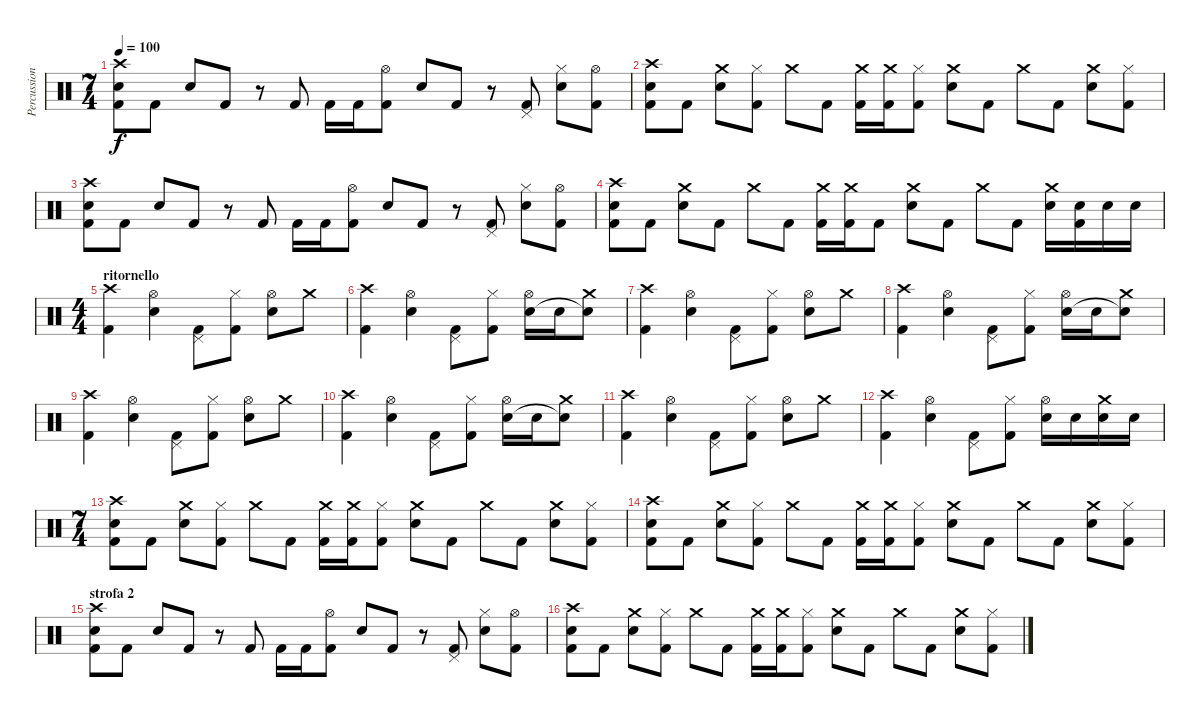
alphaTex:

\track ("Percussioni" "Percussion") {instrument percussion}
\staff {score}
\articulation defaults
\ts (7 4)
\tempo 100
\clef neutral
\ks c
("Crash high (hit)" "Snare (hit) 2" "Kick (hit) 2").8{dy f} "Kick (hit) 2".8 "Snare (hit) 2".8 "Kick (hit) 2".8 r.8 "Kick (hit) 2".8 "Kick (hit) 2".16 "Kick (hit) 2".16 ("Hi-Hat (open)" "Kick (hit) 2").8 "Snare (hit) 2".8 "Kick (hit) 2".8 r.8 ("Pedal Hi-Hat (hit)" "Kick (hit) 2").8 ("Hi-Hat (closed)" "Snare (hit) 2").8 ("Hi-Hat (open)" "Kick (hit) 2").8 |
("Crash high (hit)" "Snare (hit) 2" "Kick (hit) 2").8 "Kick (hit) 2".8 ("Crash medium (hit)" "Snare (hit) 2").8 ("Hi-Hat (closed)" "Kick (hit) 2").8 "Crash medium (hit)".8 "Kick (hit) 2".8 ("Crash medium (hit)" "Kick (hit) 2").16 ("Crash medium (hit)" "Kick (hit) 2").16 ("Hi-Hat (closed)" "Kick (hit) 2").8 ("Crash medium (hit)" "Snare (hit) 2").8 "Kick (hit) 2".8 "Crash medium (hit)".8 "Kick (hit) 2".8 ("Crash medium (hit)" "Snare (hit) 2").8 ("Hi-Hat (closed)" "Kick (hit) 2").8 |
("Crash high (hit)" "Snare (hit) 2" "Kick (hit) 2").8 "Kick (hit) 2".8 "Snare (hit) 2".8 "Kick (hit) 2".8 r.8 "Kick (hit) 2".8 "Kick (hit) 2".16 "Kick (hit) 2".16 ("Hi-Hat (open)" "Kick (hit) 2").8 "Snare (hit) 2".8 "Kick (hit) 2".8 r.8 ("Pedal Hi-Hat (hit)" "Kick (hit) 2").8 ("Hi-Hat (closed)" "Snare (hit) 2").8 ("Hi-Hat (open)" "Kick (hit) 2").8 |
("Crash high (hit)" "Snare (hit) 2" "Kick (hit) 2").8 "Kick (hit) 2".8 ("Crash medium (hit)" "Snare (hit) 2").8 "Kick (hit) 2".8 "Crash medium (hit)".8 "Kick (hit) 2".8 ("Crash medium (hit)" "Kick (hit) 2").16 ("Crash medium (hit)" "Kick (hit) 2").16 "Kick (hit) 2".8 ("Crash medium (hit)" "Snare (hit) 2").8 "Kick (hit) 2".8 "Crash medium (hit)".8 "Kick (hit) 2".8 ("Crash medium (hit)" "Snare (hit) 2").16 ("Snare (hit) 2" "Kick (hit) 2").16 "Snare (hit) 2".16 "Snare (hit) 2".16 |
\ts (4 4)
\section ("" "ritornello")
("Crash high (hit)" "Kick (hit) 2").4 ("Hi-Hat (open)" "Snare (hit) 2").4 ("Pedal Hi-Hat (hit)" "Kick (hit) 2").8 ("Hi-Hat (closed)" "Kick (hit) 2").8 ("Hi-Hat (open)" "Snare (hit) 2").8 "Crash medium (hit)".8 |
("Crash high (hit)" "Kick (hit) 2").4 ("Hi-Hat (open)" "Snare (hit) 2").4 ("Pedal Hi-Hat (hit)" "Kick (hit) 2").8 ("Hi-Hat (closed)" "Kick (hit) 2").8 ("Hi-Hat (open)" "Snare (hit) 2").16 "Snare (hit) 2".16 ("Crash medium (hit)" "Snare (hit)"{t}).8 |
("Crash high (hit)" "Kick (hit) 2").4 ("Hi-Hat (open)" "Snare (hit) 2").4 ("Pedal Hi-Hat (hit)" "Kick (hit) 2").8 ("Hi-Hat (closed)" "Kick (hit) 2").8 ("Hi-Hat (open)" "Snare (hit) 2").8 "Crash medium (hit)".8 |
("Crash high (hit)" "Kick (hit) 2").4 ("Hi-Hat (open)" "Snare (hit) 2").4 ("Pedal Hi-Hat (hit)" "Kick (hit) 2").8 ("Hi-Hat (closed)" "Kick (hit) 2").8 ("Hi-Hat (open)" "Snare (hit) 2").16 "Snare (hit) 2".16 ("Crash medium (hit)" "Snare (hit)"{t}).8 |
("Crash high (hit)" "Kick (hit) 2").4 ("Hi-Hat (open)" "Snare (hit) 2").4 ("Pedal Hi-Hat (hit)" "Kick (hit) 2").8 ("Hi-Hat (closed)" "Kick (hit) 2").8 ("Hi-Hat (open)" "Snare (hit) 2").8 "Crash medium (hit)".8 |
("Crash high (hit)" "Kick (hit) 2").4 ("Hi-Hat (open)" "Snare (hit) 2").4 ("Pedal Hi-Hat (hit)" "Kick (hit) 2").8 ("Hi-Hat (closed)" "Kick (hit) 2").8 ("Hi-Hat (open)" "Snare (hit) 2").16 "Snare (hit) 2".16 ("Crash medium (hit)" "Snare (hit)"{t}).8 |
("Crash high (hit)" "Kick (hit) 2").4 ("Hi-Hat (open)" "Snare (hit) 2").4 ("Pedal Hi-Hat (hit)" "Kick (hit) 2").8 ("Hi-Hat (closed)" "Kick (hit) 2").8 ("Hi-Hat (open)" "Snare (hit) 2").8 "Crash medium (hit)".8 |
("Crash high (hit)" "Kick (hit) 2").4 ("Hi-Hat (open)" "Snare (hit) 2").4 ("Pedal Hi-Hat (hit)" "Kick (hit) 2").8 ("Hi-Hat (closed)" "Kick (hit) 2").8 ("Hi-Hat (open)" "Snare (hit) 2").16 "Snare (hit) 2".16 ("Crash medium (hit)" "Snare (hit) 2").16 "Snare (hit) 2".16 |
\ts (7 4)
("Crash high (hit)" "Snare (hit) 2" "Kick (hit) 2").8 "Kick (hit) 2".8 ("Crash medium (hit)" "Snare (hit) 2").8 ("Hi-Hat (closed)" "Kick (hit) 2").8 "Crash medium (hit)".8 "Kick (hit) 2".8 ("Crash medium (hit)" "Kick (hit) 2").16 ("Crash medium (hit)" "Kick (hit) 2").16 ("Hi-Hat (closed)" "Kick (hit) 2").8 ("Crash medium (hit)" "Snare (hit) 2").8 "Kick (hit) 2".8 "Crash medium (hit)".8 "Kick (hit) 2".8 ("Crash medium (hit)" "Snare (hit) 2").8 ("Hi-Hat (closed)" "Kick (hit) 2").8 |
("Crash high (hit)" "Snare (hit) 2" "Kick (hit) 2").8 "Kick (hit) 2".8 ("Crash medium (hit)" "Snare (hit) 2").8 ("Hi-Hat (closed)" "Kick (hit) 2").8 "Crash medium (hit)".8 "Kick (hit) 2".8 ("Crash medium (hit)" "Kick (hit) 2").16 ("Crash medium (hit)" "Kick (hit) 2").16 ("Hi-Hat (closed)" "Kick (hit) 2").8 ("Crash medium (hit)" "Snare (hit) 2").8 "Kick (hit) 2".8 "Crash medium (hit)".8 "Kick (hit) 2".8 ("Crash medium (hit)" "Snare (hit) 2").8 ("Hi-Hat (closed)" "Kick (hit) 2").8 |
\section ("" "strofa 2")
("Crash high (hit)" "Snare (hit) 2" "Kick (hit) 2").8 "Kick (hit) 2".8 "Snare (hit) 2".8 "Kick (hit) 2".8 r.8 "Kick (hit) 2".8 "Kick (hit) 2".16 "Kick (hit) 2".16 ("Hi-Hat (open)" "Kick (hit) 2").8 "Snare (hit) 2".8 "Kick (hit) 2".8 r.8 ("Pedal Hi-Hat (hit)" "Kick (hit) 2").8 ("Hi-Hat (closed)" "Snare (hit) 2").8 ("Hi-Hat (open)" "Kick (hit) 2").8 |
("Crash high (hit)" "Snare (hit) 2" "Kick (hit) 2").8 "Kick (hit) 2".8 ("Crash medium (hit)" "Snare (hit) 2").8 ("Hi-Hat (closed)" "Kick (hit) 2").8 "Crash medium (hit)".8 "Kick (hit) 2".8 ("Crash medium (hit)" "Kick (hit) 2").16 ("Crash medium (hit)" "Kick (hit) 2").16 ("Hi-Hat (closed)" "Kick (hit) 2").8 ("Crash medium (hit)" "Snare (hit) 2").8 "Kick (hit) 2".8 "Crash medium (hit)".8 "Kick (hit) 2".8 ("Crash medium (hit)" "Snare (hit) 2").8 ("Hi-Hat (closed)" "Kick (hit) 2").8
